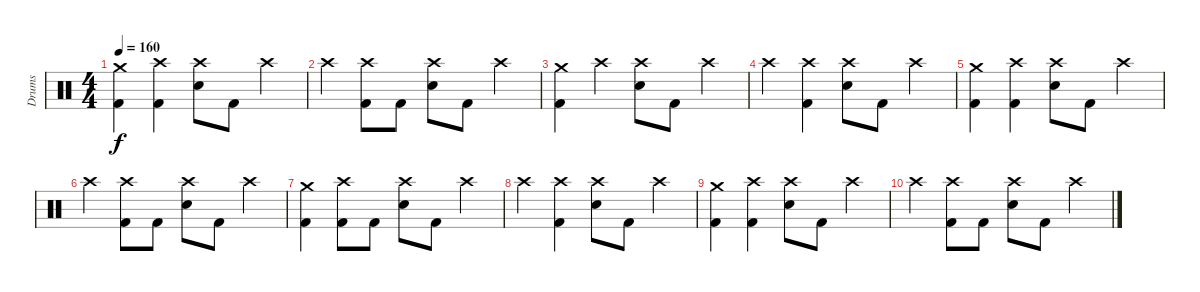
\track ("Drums" "Drums") {instrument percussion}
\staff {score}
\articulation defaults
\ts (4 4)
\tempo 160
\clef neutral
\ks c
("Crash medium (hit)" "Kick (hit) 2").4{dy f} ("Crash high (hit)" "Kick (hit) 2").4 ("Crash high (hit)" "Electric Snare (hit)").8 "Kick (hit) 2".8 "Crash high (hit)".4 |
"Crash high (hit)".4 ("Crash high (hit)" "Kick (hit) 2").8 "Kick (hit) 2".8 ("Crash high (hit)" "Electric Snare (hit)").8 "Kick (hit) 2".8 "Crash high (hit)".4 |
("Crash medium (hit)" "Kick (hit) 2").4 "Crash high (hit)".4 ("Crash high (hit)" "Electric Snare (hit)").8 "Kick (hit) 2".8 "Crash high (hit)".4 |
"Crash high (hit)".4 ("Crash high (hit)" "Kick (hit) 2").4 ("Crash high (hit)" "Electric Snare (hit)").8 "Kick (hit) 2".8 "Crash high (hit)".4 |
("Crash medium (hit)" "Kick (hit) 2").4 ("Crash high (hit)" "Kick (hit) 2").4 ("Crash high (hit)" "Electric Snare (hit)").8 "Kick (hit) 2".8 "Crash high (hit)".4 |
"Crash high (hit)".4 ("Crash high (hit)" "Kick (hit) 2").8 "Kick (hit) 2".8 ("Crash high (hit)" "Electric Snare (hit)").8 "Kick (hit) 2".8 "Crash high (hit)".4 |
("Crash medium (hit)" "Kick (hit) 2").4 ("Crash high (hit)" "Kick (hit) 2").8 "Kick (hit) 2".8 ("Crash high (hit)" "Electric Snare (hit)").8 "Kick (hit) 2".8 "Crash high (hit)".4 |
"Crash high (hit)".4 ("Crash high (hit)" "Kick (hit) 2").4 ("Crash high (hit)" "Electric Snare (hit)").8 "Kick (hit) 2".8 "Crash high (hit)".4 |
("Crash medium (hit)" "Kick (hit) 2").4 ("Crash high (hit)" "Kick (hit) 2").4 ("Crash high (hit)" "Electric Snare (hit)").8 "Kick (hit) 2".8 "Crash high (hit)".4 |
"Crash high (hit)".4 ("Crash high (hit)" "Kick (hit) 2").8 "Kick (hit) 2".8 ("Crash high (hit)" "Electric Snare (hit)").8 "Kick (hit) 2".8 "Crash high (hit)".4
